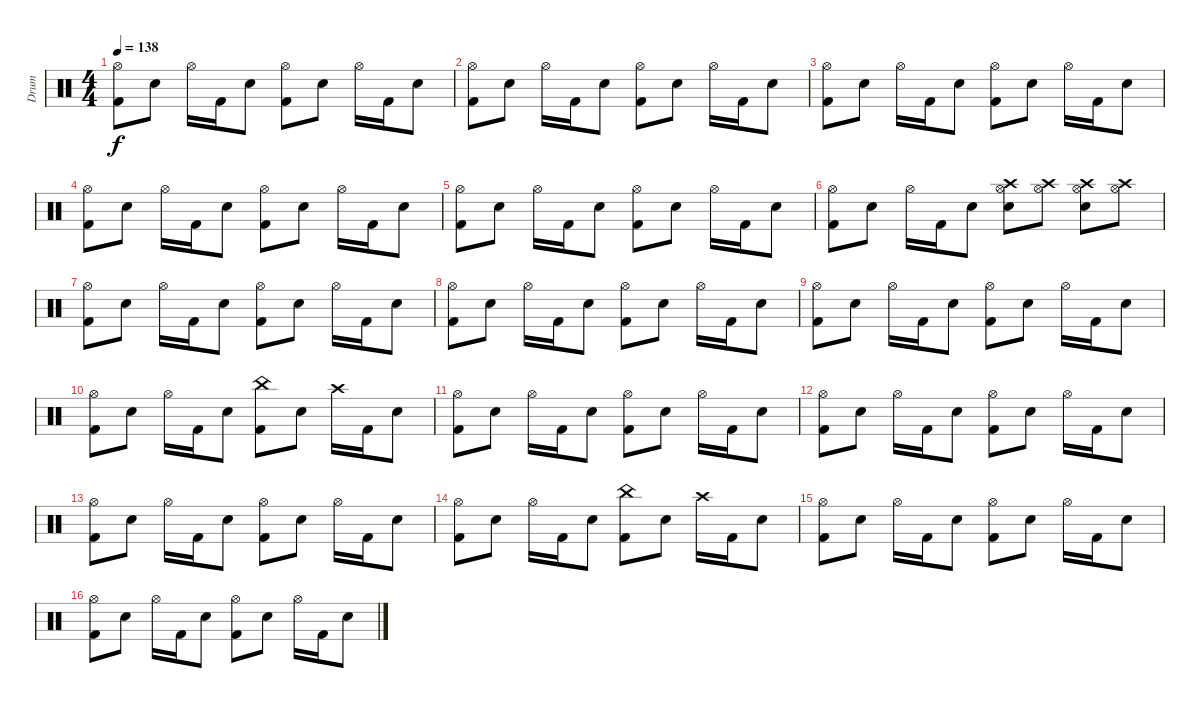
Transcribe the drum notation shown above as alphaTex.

\track ("Drum" "Drum") {instrument percussion}
\staff {score}
\articulation defaults
\ts (4 4)
\tempo 138
\clef neutral
\ks c
("Hi-Hat (open)" "Kick (hit) 2").8{dy f} "Snare (hit) 2".8 "Hi-Hat (open)".16 "Kick (hit) 2".16 "Snare (hit) 2".8 ("Hi-Hat (open)" "Kick (hit) 2").8 "Snare (hit) 2".8 "Hi-Hat (open)".16 "Kick (hit) 2".16 "Snare (hit) 2".8 |
("Hi-Hat (open)" "Kick (hit) 2").8 "Snare (hit) 2".8 "Hi-Hat (open)".16 "Kick (hit) 2".16 "Snare (hit) 2".8 ("Hi-Hat (open)" "Kick (hit) 2").8 "Snare (hit) 2".8 "Hi-Hat (open)".16 "Kick (hit) 2".16 "Snare (hit) 2".8 |
("Hi-Hat (open)" "Kick (hit) 2").8 "Snare (hit) 2".8 "Hi-Hat (open)".16 "Kick (hit) 2".16 "Snare (hit) 2".8 ("Hi-Hat (open)" "Kick (hit) 2").8 "Snare (hit) 2".8 "Hi-Hat (open)".16 "Kick (hit) 2".16 "Snare (hit) 2".8 |
("Hi-Hat (open)" "Kick (hit) 2").8 "Snare (hit) 2".8 "Hi-Hat (open)".16 "Kick (hit) 2".16 "Snare (hit) 2".8 ("Hi-Hat (open)" "Kick (hit) 2").8 "Snare (hit) 2".8 "Hi-Hat (open)".16 "Kick (hit) 2".16 "Snare (hit) 2".8 |
("Hi-Hat (open)" "Kick (hit) 2").8 "Snare (hit) 2".8 "Hi-Hat (open)".16 "Kick (hit) 2".16 "Snare (hit) 2".8 ("Hi-Hat (open)" "Kick (hit) 2").8 "Snare (hit) 2".8 "Hi-Hat (open)".16 "Kick (hit) 2".16 "Snare (hit) 2".8 |
("Hi-Hat (open)" "Kick (hit) 2").8 "Snare (hit) 2".8 "Hi-Hat (open)".16 "Kick (hit) 2".16 "Snare (hit) 2".8 ("Crash high (hit)" "Hi-Hat (open)" "Snare (hit) 2").8 ("Crash high (hit)" "Hi-Hat (open)").8 ("Crash high (hit)" "Hi-Hat (open)" "Snare (hit) 2").8 ("Crash high (hit)" "Hi-Hat (open)").8 |
("Hi-Hat (open)" "Kick (hit) 2").8 "Snare (hit) 2".8 "Hi-Hat (open)".16 "Kick (hit) 2".16 "Snare (hit) 2".8 ("Hi-Hat (open)" "Kick (hit) 2").8 "Snare (hit) 2".8 "Hi-Hat (open)".16 "Kick (hit) 2".16 "Snare (hit) 2".8 |
("Hi-Hat (open)" "Kick (hit) 2").8 "Snare (hit) 2".8 "Hi-Hat (open)".16 "Kick (hit) 2".16 "Snare (hit) 2".8 ("Hi-Hat (open)" "Kick (hit) 2").8 "Snare (hit) 2".8 "Hi-Hat (open)".16 "Kick (hit) 2".16 "Snare (hit) 2".8 |
("Hi-Hat (open)" "Kick (hit) 2").8 "Snare (hit) 2".8 "Hi-Hat (open)".16 "Kick (hit) 2".16 "Snare (hit) 2".8 ("Hi-Hat (open)" "Kick (hit) 2").8 "Snare (hit) 2".8 "Hi-Hat (open)".16 "Kick (hit) 2".16 "Snare (hit) 2".8 |
("Hi-Hat (open)" "Kick (hit) 2").8 "Snare (hit) 2".8 "Hi-Hat (open)".16 "Kick (hit) 2".16 "Snare (hit) 2".8 ("China (hit)" "Kick (hit) 2").8 "Snare (hit) 2".8 "Crash high (hit)".16 "Kick (hit) 2".16 "Snare (hit) 2".8 |
("Hi-Hat (open)" "Kick (hit) 2").8 "Snare (hit) 2".8 "Hi-Hat (open)".16 "Kick (hit) 2".16 "Snare (hit) 2".8 ("Hi-Hat (open)" "Kick (hit) 2").8 "Snare (hit) 2".8 "Hi-Hat (open)".16 "Kick (hit) 2".16 "Snare (hit) 2".8 |
("Hi-Hat (open)" "Kick (hit) 2").8 "Snare (hit) 2".8 "Hi-Hat (open)".16 "Kick (hit) 2".16 "Snare (hit) 2".8 ("Hi-Hat (open)" "Kick (hit) 2").8 "Snare (hit) 2".8 "Hi-Hat (open)".16 "Kick (hit) 2".16 "Snare (hit) 2".8 |
("Hi-Hat (open)" "Kick (hit) 2").8 "Snare (hit) 2".8 "Hi-Hat (open)".16 "Kick (hit) 2".16 "Snare (hit) 2".8 ("Hi-Hat (open)" "Kick (hit) 2").8 "Snare (hit) 2".8 "Hi-Hat (open)".16 "Kick (hit) 2".16 "Snare (hit) 2".8 |
("Hi-Hat (open)" "Kick (hit) 2").8 "Snare (hit) 2".8 "Hi-Hat (open)".16 "Kick (hit) 2".16 "Snare (hit) 2".8 ("China (hit)" "Kick (hit) 2").8 "Snare (hit) 2".8 "Crash high (hit)".16 "Kick (hit) 2".16 "Snare (hit) 2".8 |
("Hi-Hat (open)" "Kick (hit) 2").8 "Snare (hit) 2".8 "Hi-Hat (open)".16 "Kick (hit) 2".16 "Snare (hit) 2".8 ("Hi-Hat (open)" "Kick (hit) 2").8 "Snare (hit) 2".8 "Hi-Hat (open)".16 "Kick (hit) 2".16 "Snare (hit) 2".8 |
("Hi-Hat (open)" "Kick (hit) 2").8 "Snare (hit) 2".8 "Hi-Hat (open)".16 "Kick (hit) 2".16 "Snare (hit) 2".8 ("Hi-Hat (open)" "Kick (hit) 2").8 "Snare (hit) 2".8 "Hi-Hat (open)".16 "Kick (hit) 2".16 "Snare (hit) 2".8
